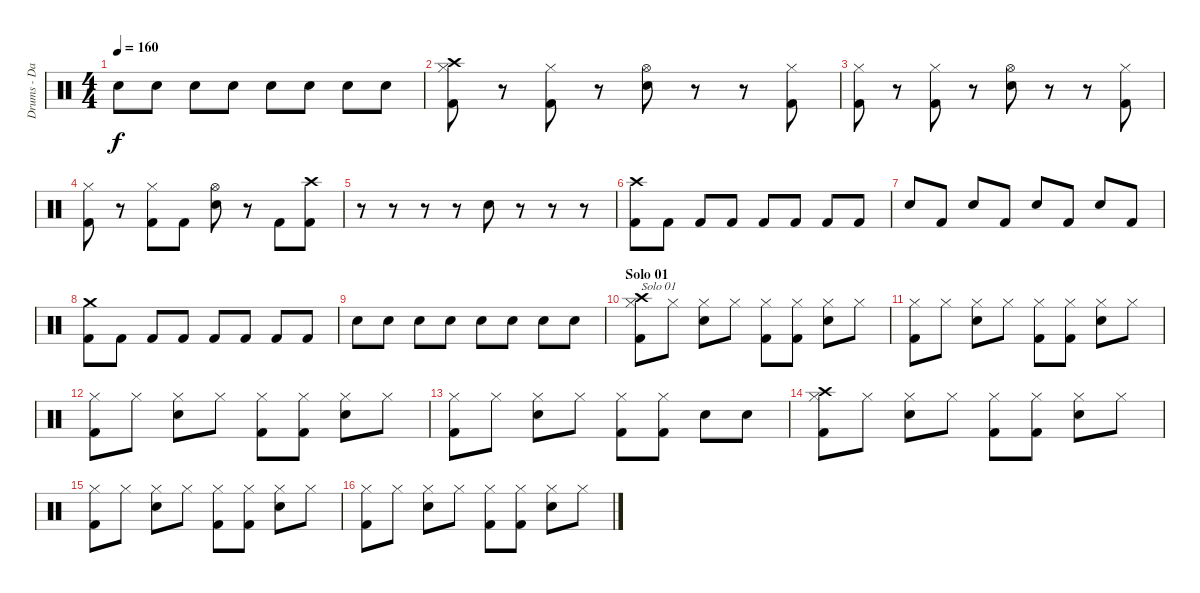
\track ("Drums - Daniel Zimmermann" "Drums - Da") {instrument percussion}
\staff {score}
\articulation defaults
\ts (4 4)
\tempo 160
\clef neutral
\ks c "Snare (hit) 2".8{dy f} "Snare (hit) 2".8 "Snare (hit) 2".8 "Snare (hit) 2".8 "Snare (hit) 2".8 "Snare (hit) 2".8 "Snare (hit) 2".8 "Snare (hit) 2".8
|
("Hi-Hat (closed)" "Kick (hit) 2" "Crash high (hit)").8 r.8 ("Hi-Hat (closed)" "Kick (hit) 2").8 r.8 ("Hi-Hat (open)" "Snare (hit) 2").8 r.8 r.8 ("Hi-Hat (closed)" "Kick (hit) 2").8 |
("Hi-Hat (closed)" "Kick (hit) 2").8 r.8 ("Hi-Hat (closed)" "Kick (hit) 2").8 r.8 ("Hi-Hat (open)" "Snare (hit) 2").8 r.8 r.8 ("Hi-Hat (closed)" "Kick (hit) 2").8 |
("Hi-Hat (closed)" "Kick (hit) 2").8 r.8 ("Hi-Hat (closed)" "Kick (hit) 2").8 "Kick (hit) 2".8 ("Hi-Hat (open)" "Snare (hit) 2").8 r.8 "Kick (hit) 2".8 ("Kick (hit) 2" "Crash high (hit)").8 |
r.8 r.8 r.8 r.8 "Snare (hit) 2".8 r.8 r.8 r.8 |
("Kick (hit) 2" "Crash high (hit)").8 "Kick (hit) 2".8 "Kick (hit) 2".8 "Kick (hit) 2".8 "Kick (hit) 2".8 "Kick (hit) 2".8 "Kick (hit) 2".8 "Kick (hit) 2".8 |
"Snare (hit) 2".8 "Kick (hit) 2".8 "Snare (hit) 2".8 "Kick (hit) 2".8 "Snare (hit) 2".8 "Kick (hit) 2".8 "Snare (hit) 2".8 "Kick (hit) 2".8 |
("Kick (hit) 2" "Crash medium (hit)").8 "Kick (hit) 2".8 "Kick (hit) 2".8 "Kick (hit) 2".8 "Kick (hit) 2".8 "Kick (hit) 2".8 "Kick (hit) 2".8 "Kick (hit) 2".8 |
"Snare (hit) 2".8 "Snare (hit) 2".8 "Snare (hit) 2".8 "Snare (hit) 2".8 "Snare (hit) 2".8 "Snare (hit) 2".8 "Snare (hit) 2".8 "Snare (hit) 2".8 |
\section ("" "Solo 01")
("Hi-Hat (closed)" "Kick (hit) 2" "Crash high (hit)").8{txt "Solo 01"} "Hi-Hat (closed)".8 ("Hi-Hat (closed)" "Snare (hit) 2").8 "Hi-Hat (closed)".8 ("Hi-Hat (closed)" "Kick (hit) 2").8 ("Hi-Hat (closed)" "Kick (hit) 2").8 ("Hi-Hat (closed)" "Snare (hit) 2").8 "Hi-Hat (closed)".8 |
("Hi-Hat (closed)" "Kick (hit) 2").8 "Hi-Hat (closed)".8 ("Hi-Hat (closed)" "Snare (hit) 2").8 "Hi-Hat (closed)".8 ("Hi-Hat (closed)" "Kick (hit) 2").8 ("Hi-Hat (closed)" "Kick (hit) 2").8 ("Hi-Hat (closed)" "Snare (hit) 2").8 "Hi-Hat (closed)".8 |
("Hi-Hat (closed)" "Kick (hit) 2").8 "Hi-Hat (closed)".8 ("Hi-Hat (closed)" "Snare (hit) 2").8 "Hi-Hat (closed)".8 ("Hi-Hat (closed)" "Kick (hit) 2").8 ("Hi-Hat (closed)" "Kick (hit) 2").8 ("Hi-Hat (closed)" "Snare (hit) 2").8 "Hi-Hat (closed)".8 |
("Hi-Hat (closed)" "Kick (hit) 2").8 "Hi-Hat (closed)".8 ("Hi-Hat (closed)" "Snare (hit) 2").8 "Hi-Hat (closed)".8 ("Hi-Hat (closed)" "Kick (hit) 2").8 ("Hi-Hat (closed)" "Kick (hit) 2").8 "Snare (hit) 2".8 "Snare (hit) 2".8 |
("Hi-Hat (closed)" "Kick (hit) 2" "Crash high (hit)").8 "Hi-Hat (closed)".8 ("Hi-Hat (closed)" "Snare (hit) 2").8 "Hi-Hat (closed)".8 ("Hi-Hat (closed)" "Kick (hit) 2").8 ("Hi-Hat (closed)" "Kick (hit) 2").8 ("Hi-Hat (closed)" "Snare (hit) 2").8 "Hi-Hat (closed)".8 |
("Hi-Hat (closed)" "Kick (hit) 2").8 "Hi-Hat (closed)".8 ("Hi-Hat (closed)" "Snare (hit) 2").8 "Hi-Hat (closed)".8 ("Hi-Hat (closed)" "Kick (hit) 2").8 ("Hi-Hat (closed)" "Kick (hit) 2").8 ("Hi-Hat (closed)" "Snare (hit) 2").8 "Hi-Hat (closed)".8 |
("Hi-Hat (closed)" "Kick (hit) 2").8 "Hi-Hat (closed)".8 ("Hi-Hat (closed)" "Snare (hit) 2").8 "Hi-Hat (closed)".8 ("Hi-Hat (closed)" "Kick (hit) 2").8 ("Hi-Hat (closed)" "Kick (hit) 2").8 ("Hi-Hat (closed)" "Snare (hit) 2").8 "Hi-Hat (closed)".8
